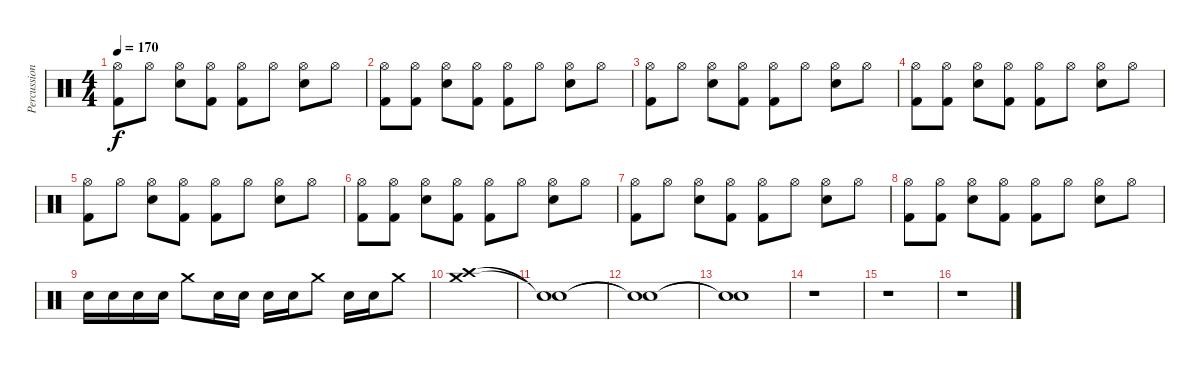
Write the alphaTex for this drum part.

\track ("Percussion" "Percussion") {instrument percussion}
\staff {score}
\articulation defaults
\ts (4 4)
\tempo 170
\clef neutral
\ks c
("Hi-Hat (open)" "Kick (hit) 2").8{dy f} "Hi-Hat (open)".8 ("Hi-Hat (open)" "Snare (hit) 2").8 ("Hi-Hat (open)" "Kick (hit) 2").8 ("Hi-Hat (open)" "Kick (hit) 2").8 "Hi-Hat (open)".8 ("Hi-Hat (open)" "Snare (hit) 2").8 "Hi-Hat (open)".8 |
("Hi-Hat (open)" "Kick (hit) 2").8 ("Hi-Hat (open)" "Kick (hit) 2").8 ("Hi-Hat (open)" "Snare (hit) 2").8 ("Hi-Hat (open)" "Kick (hit) 2").8 ("Hi-Hat (open)" "Kick (hit) 2").8 "Hi-Hat (open)".8 ("Hi-Hat (open)" "Snare (hit) 2").8 "Hi-Hat (open)".8 |
("Hi-Hat (open)" "Kick (hit) 2").8 "Hi-Hat (open)".8 ("Hi-Hat (open)" "Snare (hit) 2").8 ("Hi-Hat (open)" "Kick (hit) 2").8 ("Hi-Hat (open)" "Kick (hit) 2").8 "Hi-Hat (open)".8 ("Hi-Hat (open)" "Snare (hit) 2").8 "Hi-Hat (open)".8 |
("Hi-Hat (open)" "Kick (hit) 2").8 ("Hi-Hat (open)" "Kick (hit) 2").8 ("Hi-Hat (open)" "Snare (hit) 2").8 ("Hi-Hat (open)" "Kick (hit) 2").8 ("Hi-Hat (open)" "Kick (hit) 2").8 "Hi-Hat (open)".8 ("Hi-Hat (open)" "Snare (hit) 2").8 "Hi-Hat (open)".8 |
("Hi-Hat (open)" "Kick (hit) 2").8 "Hi-Hat (open)".8 ("Hi-Hat (open)" "Snare (hit) 2").8 ("Hi-Hat (open)" "Kick (hit) 2").8 ("Hi-Hat (open)" "Kick (hit) 2").8 "Hi-Hat (open)".8 ("Hi-Hat (open)" "Snare (hit) 2").8 "Hi-Hat (open)".8 |
("Hi-Hat (open)" "Kick (hit) 2").8 ("Hi-Hat (open)" "Kick (hit) 2").8 ("Hi-Hat (open)" "Snare (hit) 2").8 ("Hi-Hat (open)" "Kick (hit) 2").8 ("Hi-Hat (open)" "Kick (hit) 2").8 "Hi-Hat (open)".8 ("Hi-Hat (open)" "Snare (hit) 2").8 "Hi-Hat (open)".8 |
("Hi-Hat (open)" "Kick (hit) 2").8 "Hi-Hat (open)".8 ("Hi-Hat (open)" "Snare (hit) 2").8 ("Hi-Hat (open)" "Kick (hit) 2").8 ("Hi-Hat (open)" "Kick (hit) 2").8 "Hi-Hat (open)".8 ("Hi-Hat (open)" "Snare (hit) 2").8 "Hi-Hat (open)".8 |
("Hi-Hat (open)" "Kick (hit) 2").8 ("Hi-Hat (open)" "Kick (hit) 2").8 ("Hi-Hat (open)" "Snare (hit) 2").8 ("Hi-Hat (open)" "Kick (hit) 2").8 ("Hi-Hat (open)" "Kick (hit) 2").8 "Hi-Hat (open)".8 ("Hi-Hat (open)" "Snare (hit) 2").8 "Hi-Hat (open)".8 |
"Snare (hit) 2".16 "Snare (hit) 2".16 "Snare (hit) 2".16 "Snare (hit) 2".16 "Crash medium (hit)".8 "Snare (hit) 2".16 "Snare (hit) 2".16 "Snare (hit) 2".16 "Snare (hit) 2".16 "Crash medium (hit)".8 "Snare (hit) 2".16 "Snare (hit) 2".16 "Crash medium (hit)".8 |
("Crash medium (hit)" "Crash high (hit)").1 |
("Snare (hit)"{t} "Snare (hit)"{t}).1 |
("Snare (hit)"{t} "Snare (hit)"{t}).1 |
("Snare (hit)"{t} "Snare (hit)"{t}).1 |
r.1 |
r.1 |
r.1
